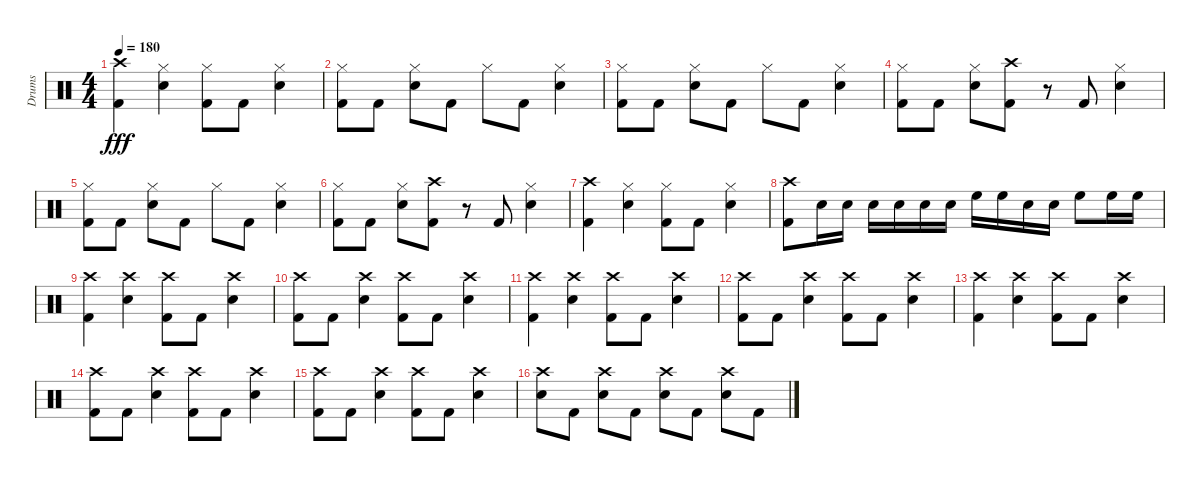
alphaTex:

\track ("Drums" "Drums") {instrument percussion}
\staff {score}
\articulation defaults
\ts (4 4)
\tempo 180
\clef neutral
\ks c
("Crash high (hit)" "Kick (hit) 2").4{dy fff} ("Snare (hit) 2" "Hi-Hat (closed)").4 ("Kick (hit) 2" "Hi-Hat (closed)").8 "Kick (hit) 2".8 ("Snare (hit) 2" "Hi-Hat (closed)").4 |
("Kick (hit) 2" "Hi-Hat (closed)").8 "Kick (hit) 2".8 ("Snare (hit) 2" "Hi-Hat (closed)").8 "Kick (hit) 2".8 "Hi-Hat (closed)".8 "Kick (hit) 2".8 ("Snare (hit) 2" "Hi-Hat (closed)").4 |
("Kick (hit) 2" "Hi-Hat (closed)").8 "Kick (hit) 2".8 ("Snare (hit) 2" "Hi-Hat (closed)").8 "Kick (hit) 2".8 "Hi-Hat (closed)".8 "Kick (hit) 2".8 ("Snare (hit) 2" "Hi-Hat (closed)").4 |
("Kick (hit) 2" "Hi-Hat (closed)").8 "Kick (hit) 2".8 ("Snare (hit) 2" "Hi-Hat (closed)").8 ("Crash high (hit)" "Kick (hit) 2").8 r.8 "Kick (hit) 2".8 ("Snare (hit) 2" "Hi-Hat (closed)").4 |
("Kick (hit) 2" "Hi-Hat (closed)").8 "Kick (hit) 2".8 ("Snare (hit) 2" "Hi-Hat (closed)").8 "Kick (hit) 2".8 "Hi-Hat (closed)".8 "Kick (hit) 2".8 ("Snare (hit) 2" "Hi-Hat (closed)").4 |
("Kick (hit) 2" "Hi-Hat (closed)").8 "Kick (hit) 2".8 ("Snare (hit) 2" "Hi-Hat (closed)").8 ("Crash high (hit)" "Kick (hit) 2").8 r.8 "Kick (hit) 2".8 ("Snare (hit) 2" "Hi-Hat (closed)").4 |
("Crash high (hit)" "Kick (hit) 2").4 ("Hi-Hat (closed)" "Snare (hit) 2").4 ("Hi-Hat (closed)" "Kick (hit) 2").8 "Kick (hit) 2".8 ("Snare (hit) 2" "Hi-Hat (closed)").4 |
("Crash high (hit)" "Kick (hit) 2").8 "Snare (hit) 2".16 "Snare (hit) 2".16 "Snare (hit) 2".16 "Snare (hit) 2".16 "Snare (hit) 2".16 "Snare (hit) 2".16 "High Floor Tom (hit)".16 "High Floor Tom (hit)".16 "Snare (hit) 2".16 "Snare (hit) 2".16 "High Floor Tom (hit)".8 "High Floor Tom (hit)".16 "High Floor Tom (hit)".16 |
("Kick (hit) 2" "Crash high (hit)").4 ("Crash high (hit)" "Snare (hit) 2").4 ("Crash high (hit)" "Kick (hit) 2").8 "Kick (hit) 2".8 ("Crash high (hit)" "Snare (hit) 2").4 |
("Crash high (hit)" "Kick (hit) 2").8 "Kick (hit) 2".8 ("Crash high (hit)" "Snare (hit) 2").4 ("Crash high (hit)" "Kick (hit) 2").8 "Kick (hit) 2".8 ("Crash high (hit)" "Snare (hit) 2").4 |
("Kick (hit) 2" "Crash high (hit)").4 ("Crash high (hit)" "Snare (hit) 2").4 ("Crash high (hit)" "Kick (hit) 2").8 "Kick (hit) 2".8 ("Crash high (hit)" "Snare (hit) 2").4 |
("Crash high (hit)" "Kick (hit) 2").8 "Kick (hit) 2".8 ("Crash high (hit)" "Snare (hit) 2").4 ("Crash high (hit)" "Kick (hit) 2").8 "Kick (hit) 2".8 ("Crash high (hit)" "Snare (hit) 2").4 |
("Kick (hit) 2" "Crash high (hit)").4 ("Crash high (hit)" "Snare (hit) 2").4 ("Crash high (hit)" "Kick (hit) 2").8 "Kick (hit) 2".8 ("Crash high (hit)" "Snare (hit) 2").4 |
("Crash high (hit)" "Kick (hit) 2").8 "Kick (hit) 2".8 ("Crash high (hit)" "Snare (hit) 2").4 ("Crash high (hit)" "Kick (hit) 2").8 "Kick (hit) 2".8 ("Crash high (hit)" "Snare (hit) 2").4 |
("Kick (hit) 2" "Crash high (hit)").8 "Kick (hit) 2".8 ("Crash high (hit)" "Snare (hit) 2").4 ("Crash high (hit)" "Kick (hit) 2").8 "Kick (hit) 2".8 ("Crash high (hit)" "Snare (hit) 2").4 |
("Crash high (hit)" "Snare (hit) 2").8 "Kick (hit) 2".8 ("Crash high (hit)" "Snare (hit) 2").8 "Kick (hit) 2".8 ("Crash high (hit)" "Snare (hit) 2").8 "Kick (hit) 2".8 ("Crash high (hit)" "Snare (hit) 2").8 "Kick (hit) 2".8
